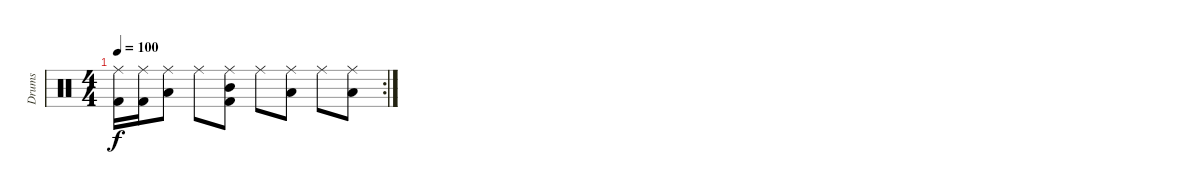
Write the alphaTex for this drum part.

\track ("Drums" "Drums") {instrument percussion}
\staff {score}
\articulation defaults
\rc 2
\ts (4 4)
\tempo 100
\clef neutral
\ks c
("Ride (middle)" "Kick (hit) 2").16{dy f} ("Ride (middle)" "Kick (hit) 2").16 ("Low Tom (hit)" "Ride (middle)").8 "Ride (middle)".8 ("Mid Tom (hit)" "Ride (middle)" "Kick (hit) 2").8 "Ride (middle)".8 ("Low Tom (hit)" "Ride (middle)").8 "Ride (middle)".8 ("Low Floor Tom (hit)" "Ride (middle)").8
